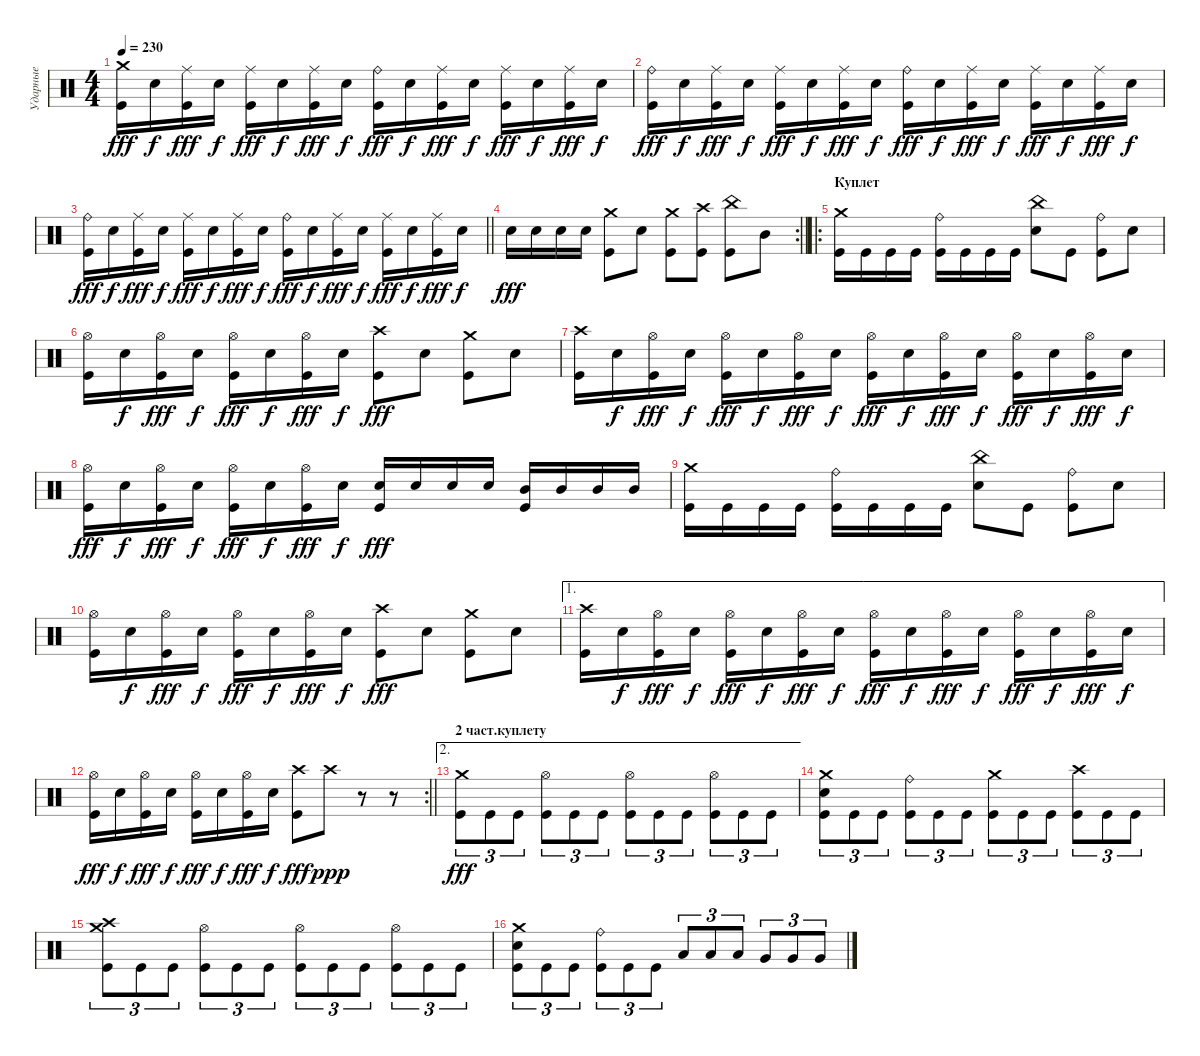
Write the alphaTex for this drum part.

\track ("Ударные" "Ударные") {instrument percussion}
\staff {score}
\articulation defaults
\ts (4 4)
\tempo 230
\clef neutral
\ks c
("Crash medium (hit)" "Kick (hit)").16{dy fff} "Electric Snare (hit)".16{dy f} ("Kick (hit)" "Ride (middle)").16{dy fff} "Electric Snare (hit)".16{dy f} ("Kick (hit)" "Ride (middle)").16{dy fff} "Electric Snare (hit)".16{dy f} ("Kick (hit)" "Ride (middle)").16{dy fff} "Electric Snare (hit)".16{dy f} ("Kick (hit)" "Ride (bell)").16{dy fff} "Electric Snare (hit)".16{dy f} ("Kick (hit)" "Ride (middle)").16{dy fff} "Electric Snare (hit)".16{dy f} ("Kick (hit)" "Ride (middle)").16{dy fff} "Electric Snare (hit)".16{dy f} ("Kick (hit)" "Ride (middle)").16{dy fff} "Electric Snare (hit)".16{dy f} |
("Kick (hit)" "Ride (bell)").16{dy fff} "Electric Snare (hit)".16{dy f} ("Kick (hit)" "Ride (middle)").16{dy fff} "Electric Snare (hit)".16{dy f} ("Kick (hit)" "Ride (middle)").16{dy fff} "Electric Snare (hit)".16{dy f} ("Kick (hit)" "Ride (middle)").16{dy fff} "Electric Snare (hit)".16{dy f} ("Kick (hit)" "Ride (bell)").16{dy fff} "Electric Snare (hit)".16{dy f} ("Kick (hit)" "Ride (middle)").16{dy fff} "Electric Snare (hit)".16{dy f} ("Kick (hit)" "Ride (middle)").16{dy fff} "Electric Snare (hit)".16{dy f} ("Kick (hit)" "Ride (middle)").16{dy fff} "Electric Snare (hit)".16{dy f} |
\barLineRight lightlight
("Kick (hit)" "Ride (bell)").16{dy fff} "Electric Snare (hit)".16{dy f} ("Kick (hit)" "Ride (middle)").16{dy fff} "Electric Snare (hit)".16{dy f} ("Kick (hit)" "Ride (middle)").16{dy fff} "Electric Snare (hit)".16{dy f} ("Kick (hit)" "Ride (middle)").16{dy fff} "Electric Snare (hit)".16{dy f} ("Kick (hit)" "Ride (bell)").16{dy fff} "Electric Snare (hit)".16{dy f} ("Kick (hit)" "Ride (middle)").16{dy fff} "Electric Snare (hit)".16{dy f} ("Kick (hit)" "Ride (middle)").16{dy fff} "Electric Snare (hit)".16{dy f} ("Kick (hit)" "Ride (middle)").16{dy fff} "Electric Snare (hit)".16{dy f} |
\rc 2
\section ("" "")
\barLineRight lightlight "Electric Snare (hit)".16{dy fff} "Electric Snare (hit)".16 "Electric Snare (hit)".16 "Electric Snare (hit)".16
("Crash medium (hit)" "Kick (hit)").8 "Electric Snare (hit)".8 ("Crash medium (hit)" "Kick (hit)").8 ("Crash high (hit)" "Kick (hit)").8 ("China (hit)" "Kick (hit)").8 "Mid Tom (hit)".8 |
\ro
\section ("" "Куплет")
("Kick (hit)" "Crash medium (hit)").16 "Kick (hit)".16 "Kick (hit)".16 "Kick (hit)".16 ("Kick (hit)" "Ride (bell)").16 "Kick (hit)".16 "Kick (hit)".16 "Kick (hit)".16 ("Electric Snare (hit)" "China (hit)").8 "Kick (hit)".8 ("Kick (hit)" "Ride (bell)").8 "Electric Snare (hit)".8 |
("Kick (hit)" "Hi-Hat (open)").16 "Electric Snare (hit)".16{dy f} ("Kick (hit)" "Hi-Hat (open)").16{dy fff} "Electric Snare (hit)".16{dy f} ("Kick (hit)" "Hi-Hat (open)").16{dy fff} "Electric Snare (hit)".16{dy f} ("Kick (hit)" "Hi-Hat (open)").16{dy fff} "Electric Snare (hit)".16{dy f} ("Crash high (hit)" "Kick (hit)").8{dy fff} "Electric Snare (hit)".8 ("Crash medium (hit)" "Kick (hit)").8 "Electric Snare (hit)".8 |
("Kick (hit)" "Crash high (hit)").16 "Electric Snare (hit)".16{dy f} ("Kick (hit)" "Hi-Hat (open)").16{dy fff} "Electric Snare (hit)".16{dy f} ("Kick (hit)" "Hi-Hat (open)").16{dy fff} "Electric Snare (hit)".16{dy f} ("Kick (hit)" "Hi-Hat (open)").16{dy fff} "Electric Snare (hit)".16{dy f} ("Kick (hit)" "Hi-Hat (open)").16{dy fff} "Electric Snare (hit)".16{dy f} ("Kick (hit)" "Hi-Hat (open)").16{dy fff} "Electric Snare (hit)".16{dy f} ("Kick (hit)" "Hi-Hat (open)").16{dy fff} "Electric Snare (hit)".16{dy f} ("Kick (hit)" "Hi-Hat (open)").16{dy fff} "Electric Snare (hit)".16{dy f} |
("Kick (hit)" "Hi-Hat (open)").16{dy fff} "Electric Snare (hit)".16{dy f} ("Kick (hit)" "Hi-Hat (open)").16{dy fff} "Electric Snare (hit)".16{dy f} ("Kick (hit)" "Hi-Hat (open)").16{dy fff} "Electric Snare (hit)".16{dy f} ("Kick (hit)" "Hi-Hat (open)").16{dy fff} "Electric Snare (hit)".16{dy f} ("Electric Snare (hit)" "Kick (hit)").16{dy fff} "Electric Snare (hit)".16 "Electric Snare (hit)".16 "Electric Snare (hit)".16 ("Mid Tom (hit)" "Kick (hit)").16 "Mid Tom (hit)".16 "Mid Tom (hit)".16 "Mid Tom (hit)".16 |
("Kick (hit)" "Crash medium (hit)").16 "Kick (hit)".16 "Kick (hit)".16 "Kick (hit)".16 ("Kick (hit)" "Ride (bell)").16 "Kick (hit)".16 "Kick (hit)".16 "Kick (hit)".16 ("Electric Snare (hit)" "China (hit)").8 "Kick (hit)".8 ("Kick (hit)" "Ride (bell)").8 "Electric Snare (hit)".8 |
("Kick (hit)" "Hi-Hat (open)").16 "Electric Snare (hit)".16{dy f} ("Kick (hit)" "Hi-Hat (open)").16{dy fff} "Electric Snare (hit)".16{dy f} ("Kick (hit)" "Hi-Hat (open)").16{dy fff} "Electric Snare (hit)".16{dy f} ("Kick (hit)" "Hi-Hat (open)").16{dy fff} "Electric Snare (hit)".16{dy f} ("Crash high (hit)" "Kick (hit)").8{dy fff} "Electric Snare (hit)".8 ("Crash medium (hit)" "Kick (hit)").8 "Electric Snare (hit)".8 |
\ae 1
("Kick (hit)" "Crash high (hit)").16 "Electric Snare (hit)".16{dy f} ("Kick (hit)" "Hi-Hat (open)").16{dy fff} "Electric Snare (hit)".16{dy f} ("Kick (hit)" "Hi-Hat (open)").16{dy fff} "Electric Snare (hit)".16{dy f} ("Kick (hit)" "Hi-Hat (open)").16{dy fff} "Electric Snare (hit)".16{dy f} ("Kick (hit)" "Hi-Hat (open)").16{dy fff} "Electric Snare (hit)".16{dy f} ("Kick (hit)" "Hi-Hat (open)").16{dy fff} "Electric Snare (hit)".16{dy f} ("Kick (hit)" "Hi-Hat (open)").16{dy fff} "Electric Snare (hit)".16{dy f} ("Kick (hit)" "Hi-Hat (open)").16{dy fff} "Electric Snare (hit)".16{dy f} |
\rc 2
\barLineRight lightlight
("Kick (hit)" "Hi-Hat (open)").16{dy fff} "Electric Snare (hit)".16{dy f} ("Kick (hit)" "Hi-Hat (open)").16{dy fff} "Electric Snare (hit)".16{dy f} ("Kick (hit)" "Hi-Hat (open)").16{dy fff} "Electric Snare (hit)".16{dy f} ("Kick (hit)" "Hi-Hat (open)").16{dy fff} "Electric Snare (hit)".16{dy f} ("Crash high (hit)" "Kick (hit)").8{dy fff} "Crash high (hit)".8{dy ppp} r.8 r.8 |
\ae 2
\section ("" "2 част.куплету")
("Crash medium (hit)" "Kick (hit)").8{tu (3 2) dy fff} "Kick (hit)".8{tu (3 2)} "Kick (hit)".8{tu (3 2)} ("Kick (hit)" "Hi-Hat (open)").8{tu (3 2)} "Kick (hit)".8{tu (3 2)} "Kick (hit)".8{tu (3 2)} ("Kick (hit)" "Hi-Hat (open)").8{tu (3 2)} "Kick (hit)".8{tu (3 2)} "Kick (hit)".8{tu (3 2)} ("Kick (hit)" "Hi-Hat (open)").8{tu (3 2)} "Kick (hit)".8{tu (3 2)} "Kick (hit)".8{tu (3 2)} |
("Kick (hit)" "Electric Snare (hit)" "Crash medium (hit)").8{tu (3 2)} "Kick (hit)".8{tu (3 2)} "Kick (hit)".8{tu (3 2)} ("Kick (hit)" "Ride (bell)").8{tu (3 2)} "Kick (hit)".8{tu (3 2)} "Kick (hit)".8{tu (3 2)} ("Kick (hit)" "Crash medium (hit)").8{tu (3 2)} "Kick (hit)".8{tu (3 2)} "Kick (hit)".8{tu (3 2)} ("Kick (hit)" "Crash high (hit)").8{tu (3 2)} "Kick (hit)".8{tu (3 2)} "Kick (hit)".8{tu (3 2)} |
("Crash medium (hit)" "Kick (hit)" "Crash high (hit)").8{tu (3 2)} "Kick (hit)".8{tu (3 2)} "Kick (hit)".8{tu (3 2)} ("Kick (hit)" "Hi-Hat (open)").8{tu (3 2)} "Kick (hit)".8{tu (3 2)} "Kick (hit)".8{tu (3 2)} ("Kick (hit)" "Hi-Hat (open)").8{tu (3 2)} "Kick (hit)".8{tu (3 2)} "Kick (hit)".8{tu (3 2)} ("Kick (hit)" "Hi-Hat (open)").8{tu (3 2)} "Kick (hit)".8{tu (3 2)} "Kick (hit)".8{tu (3 2)} |
("Kick (hit)" "Electric Snare (hit)" "Crash medium (hit)").8{tu (3 2)} "Kick (hit)".8{tu (3 2)} "Kick (hit)".8{tu (3 2)} ("Kick (hit)" "Ride (bell)").8{tu (3 2)} "Kick (hit)".8{tu (3 2)} "Kick (hit)".8{tu (3 2)} "Low Tom (hit)".8{tu (3 2)} "Low Tom (hit)".8{tu (3 2)} "Low Tom (hit)".8{tu (3 2)} "Very Low Tom (hit)".8{tu (3 2)} "Very Low Tom (hit)".8{tu (3 2)} "Very Low Tom (hit)".8{tu (3 2)}
